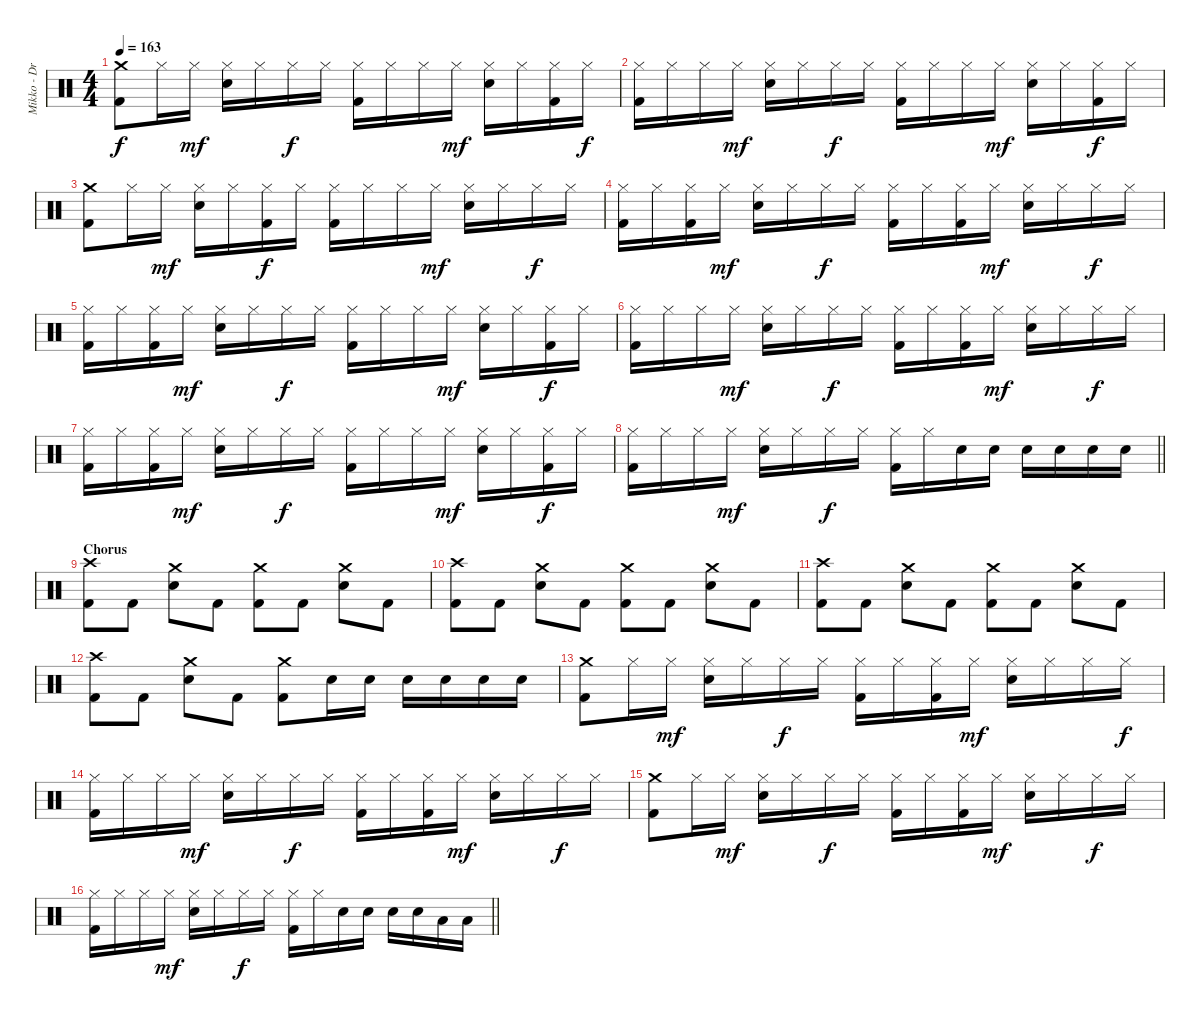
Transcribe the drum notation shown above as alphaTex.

\track ("Mikko - Drums" "Mikko - Dr") {instrument percussion}
\staff {score}
\articulation defaults
\ts (4 4)
\tempo 163
\clef neutral
\ks c
("Crash medium (hit)" "Kick (hit) 2").8{dy f} "Hi-Hat (closed)".16 "Hi-Hat (closed)".16{dy mf} ("Hi-Hat (closed)" "Snare (hit) 2").16 "Hi-Hat (closed)".16 "Hi-Hat (closed)".16{dy f} "Hi-Hat (closed)".16 ("Hi-Hat (closed)" "Kick (hit) 2").16 "Hi-Hat (closed)".16 "Hi-Hat (closed)".16 "Hi-Hat (closed)".16{dy mf} ("Hi-Hat (closed)" "Snare (hit) 2").16 "Hi-Hat (closed)".16 ("Hi-Hat (closed)" "Kick (hit) 2").16 "Hi-Hat (closed)".16{dy f} |
("Hi-Hat (closed)" "Kick (hit) 2").16 "Hi-Hat (closed)".16 "Hi-Hat (closed)".16 "Hi-Hat (closed)".16{dy mf} ("Hi-Hat (closed)" "Snare (hit) 2").16 "Hi-Hat (closed)".16 "Hi-Hat (closed)".16{dy f} "Hi-Hat (closed)".16 ("Hi-Hat (closed)" "Kick (hit) 2").16 "Hi-Hat (closed)".16 "Hi-Hat (closed)".16 "Hi-Hat (closed)".16{dy mf} ("Hi-Hat (closed)" "Snare (hit) 2").16 "Hi-Hat (closed)".16 ("Hi-Hat (closed)" "Kick (hit) 2").16{dy f} "Hi-Hat (closed)".16 |
("Crash medium (hit)" "Kick (hit) 2").8 "Hi-Hat (closed)".16 "Hi-Hat (closed)".16{dy mf} ("Hi-Hat (closed)" "Snare (hit) 2").16 "Hi-Hat (closed)".16 ("Hi-Hat (closed)" "Kick (hit) 2").16{dy f} "Hi-Hat (closed)".16 ("Hi-Hat (closed)" "Kick (hit) 2").16 "Hi-Hat (closed)".16 "Hi-Hat (closed)".16 "Hi-Hat (closed)".16{dy mf} ("Hi-Hat (closed)" "Snare (hit) 2").16 "Hi-Hat (closed)".16 "Hi-Hat (closed)".16{dy f} "Hi-Hat (closed)".16 |
("Hi-Hat (closed)" "Kick (hit) 2").16 "Hi-Hat (closed)".16 ("Hi-Hat (closed)" "Kick (hit) 2").16 "Hi-Hat (closed)".16{dy mf} ("Hi-Hat (closed)" "Snare (hit) 2").16 "Hi-Hat (closed)".16 "Hi-Hat (closed)".16{dy f} "Hi-Hat (closed)".16 ("Hi-Hat (closed)" "Kick (hit) 2").16 "Hi-Hat (closed)".16 ("Hi-Hat (closed)" "Kick (hit) 2").16 "Hi-Hat (closed)".16{dy mf} ("Hi-Hat (closed)" "Snare (hit) 2").16 "Hi-Hat (closed)".16 "Hi-Hat (closed)".16{dy f} "Hi-Hat (closed)".16 |
("Hi-Hat (closed)" "Kick (hit) 2").16 "Hi-Hat (closed)".16 ("Hi-Hat (closed)" "Kick (hit) 2").16 "Hi-Hat (closed)".16{dy mf} ("Hi-Hat (closed)" "Snare (hit) 2").16 "Hi-Hat (closed)".16 "Hi-Hat (closed)".16{dy f} "Hi-Hat (closed)".16 ("Hi-Hat (closed)" "Kick (hit) 2").16 "Hi-Hat (closed)".16 "Hi-Hat (closed)".16 "Hi-Hat (closed)".16{dy mf} ("Hi-Hat (closed)" "Snare (hit) 2").16 "Hi-Hat (closed)".16 ("Hi-Hat (closed)" "Kick (hit) 2").16{dy f} "Hi-Hat (closed)".16 |
("Hi-Hat (closed)" "Kick (hit) 2").16 "Hi-Hat (closed)".16 "Hi-Hat (closed)".16 "Hi-Hat (closed)".16{dy mf} ("Hi-Hat (closed)" "Snare (hit) 2").16 "Hi-Hat (closed)".16 "Hi-Hat (closed)".16{dy f} "Hi-Hat (closed)".16 ("Hi-Hat (closed)" "Kick (hit) 2").16 "Hi-Hat (closed)".16 ("Hi-Hat (closed)" "Kick (hit) 2").16 "Hi-Hat (closed)".16{dy mf} ("Hi-Hat (closed)" "Snare (hit) 2").16 "Hi-Hat (closed)".16 "Hi-Hat (closed)".16{dy f} "Hi-Hat (closed)".16 |
("Hi-Hat (closed)" "Kick (hit) 2").16 "Hi-Hat (closed)".16 ("Hi-Hat (closed)" "Kick (hit) 2").16 "Hi-Hat (closed)".16{dy mf} ("Hi-Hat (closed)" "Snare (hit) 2").16 "Hi-Hat (closed)".16 "Hi-Hat (closed)".16{dy f} "Hi-Hat (closed)".16 ("Hi-Hat (closed)" "Kick (hit) 2").16 "Hi-Hat (closed)".16 "Hi-Hat (closed)".16 "Hi-Hat (closed)".16{dy mf} ("Hi-Hat (closed)" "Snare (hit) 2").16 "Hi-Hat (closed)".16 ("Hi-Hat (closed)" "Kick (hit) 2").16{dy f} "Hi-Hat (closed)".16 |
\barLineRight lightlight
("Hi-Hat (closed)" "Kick (hit) 2").16 "Hi-Hat (closed)".16 "Hi-Hat (closed)".16 "Hi-Hat (closed)".16{dy mf} ("Hi-Hat (closed)" "Snare (hit) 2").16 "Hi-Hat (closed)".16 "Hi-Hat (closed)".16{dy f} "Hi-Hat (closed)".16 ("Hi-Hat (closed)" "Kick (hit) 2").16 "Hi-Hat (closed)".16 "Snare (hit) 2".16 "Snare (hit) 2".16 "Snare (hit) 2".16 "Snare (hit) 2".16 "Snare (hit) 2".16 "Snare (hit) 2".16 |
\section ("" "Chorus")
("Crash high (hit)" "Kick (hit) 2").8 "Kick (hit) 2".8 ("Crash medium (hit)" "Snare (hit) 2").8 "Kick (hit) 2".8 ("Crash medium (hit)" "Kick (hit) 2").8 "Kick (hit) 2".8 ("Crash medium (hit)" "Snare (hit) 2").8 "Kick (hit) 2".8 |
("Crash high (hit)" "Kick (hit) 2").8 "Kick (hit) 2".8 ("Crash medium (hit)" "Snare (hit) 2").8 "Kick (hit) 2".8 ("Crash medium (hit)" "Kick (hit) 2").8 "Kick (hit) 2".8 ("Crash medium (hit)" "Snare (hit) 2").8 "Kick (hit) 2".8 |
("Crash high (hit)" "Kick (hit) 2").8 "Kick (hit) 2".8 ("Crash medium (hit)" "Snare (hit) 2").8 "Kick (hit) 2".8 ("Crash medium (hit)" "Kick (hit) 2").8 "Kick (hit) 2".8 ("Crash medium (hit)" "Snare (hit) 2").8 "Kick (hit) 2".8 |
("Crash high (hit)" "Kick (hit) 2").8 "Kick (hit) 2".8 ("Crash medium (hit)" "Snare (hit) 2").8 "Kick (hit) 2".8 ("Crash medium (hit)" "Kick (hit) 2").8 "Snare (hit) 2".16 "Snare (hit) 2".16 "Snare (hit) 2".16 "Snare (hit) 2".16 "Snare (hit) 2".16 "Snare (hit) 2".16 |
("Crash medium (hit)" "Kick (hit) 2").8 "Hi-Hat (closed)".16 "Hi-Hat (closed)".16{dy mf} ("Hi-Hat (closed)" "Snare (hit) 2").16 "Hi-Hat (closed)".16 "Hi-Hat (closed)".16{dy f} "Hi-Hat (closed)".16 ("Hi-Hat (closed)" "Kick (hit) 2").16 "Hi-Hat (closed)".16 ("Hi-Hat (closed)" "Kick (hit) 2").16 "Hi-Hat (closed)".16{dy mf} ("Hi-Hat (closed)" "Snare (hit) 2").16 "Hi-Hat (closed)".16 "Hi-Hat (closed)".16 "Hi-Hat (closed)".16{dy f} |
("Hi-Hat (closed)" "Kick (hit) 2").16 "Hi-Hat (closed)".16 "Hi-Hat (closed)".16 "Hi-Hat (closed)".16{dy mf} ("Hi-Hat (closed)" "Snare (hit) 2").16 "Hi-Hat (closed)".16 "Hi-Hat (closed)".16{dy f} "Hi-Hat (closed)".16 ("Hi-Hat (closed)" "Kick (hit) 2").16 "Hi-Hat (closed)".16 ("Hi-Hat (closed)" "Kick (hit) 2").16 "Hi-Hat (closed)".16{dy mf} ("Hi-Hat (closed)" "Snare (hit) 2").16 "Hi-Hat (closed)".16 "Hi-Hat (closed)".16{dy f} "Hi-Hat (closed)".16 |
("Crash medium (hit)" "Kick (hit) 2").8 "Hi-Hat (closed)".16 "Hi-Hat (closed)".16{dy mf} ("Hi-Hat (closed)" "Snare (hit) 2").16 "Hi-Hat (closed)".16 "Hi-Hat (closed)".16{dy f} "Hi-Hat (closed)".16 ("Hi-Hat (closed)" "Kick (hit) 2").16 "Hi-Hat (closed)".16 ("Hi-Hat (closed)" "Kick (hit) 2").16 "Hi-Hat (closed)".16{dy mf} ("Hi-Hat (closed)" "Snare (hit) 2").16 "Hi-Hat (closed)".16 "Hi-Hat (closed)".16{dy f} "Hi-Hat (closed)".16 |
\barLineRight lightlight
("Hi-Hat (closed)" "Kick (hit) 2").16 "Hi-Hat (closed)".16 "Hi-Hat (closed)".16 "Hi-Hat (closed)".16{dy mf} ("Hi-Hat (closed)" "Snare (hit) 2").16 "Hi-Hat (closed)".16 "Hi-Hat (closed)".16{dy f} "Hi-Hat (closed)".16 ("Hi-Hat (closed)" "Kick (hit) 2").16 "Hi-Hat (closed)".16 "Snare (hit) 2".16 "Snare (hit) 2".16 "Snare (hit) 2".16 "Snare (hit) 2".16 "Low Tom (hit)".16 "Low Tom (hit)".16
